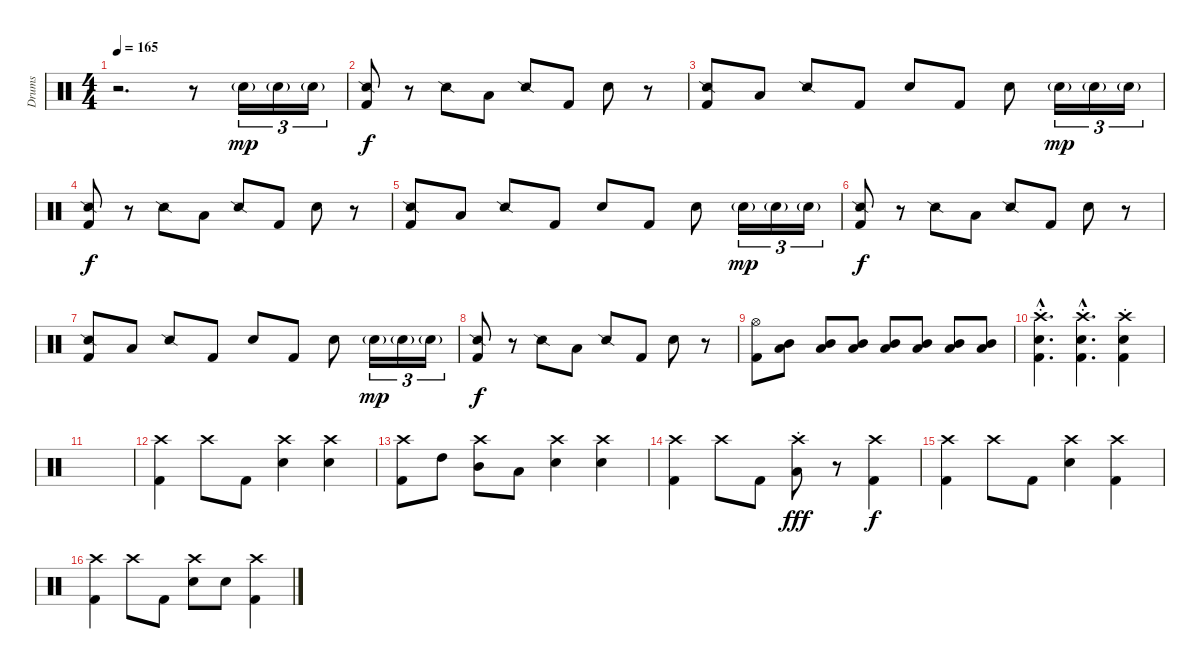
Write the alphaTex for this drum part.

\track ("Drums" "Drums") {instrument percussion}
\staff {score}
\articulation defaults
\ts (4 4)
\tempo 165
\clef neutral
\ks c
r.2{d dy f} r.8 "Electric Snare (hit)"{g}.16{tu (3 2) dy mp} "Electric Snare (hit)"{g}.16{tu (3 2)} "Electric Snare (hit)"{g}.16{tu (3 2)} |
("Snare (side stick) 2" "Kick (hit) 2").8{dy f} r.8 "Snare (side stick) 2".8 "Low Tom (hit)".8 "Snare (side stick) 2".8 "Kick (hit) 2".8 "Electric Snare (hit)".8 r.8 |
("Snare (side stick) 2" "Kick (hit) 2").8 "Low Tom (hit)".8 "Snare (side stick) 2".8 "Kick (hit) 2".8 "Electric Snare (hit)".8 "Kick (hit) 2".8 "Electric Snare (hit)".8 "Electric Snare (hit)"{g}.16{tu (3 2) dy mp} "Electric Snare (hit)"{g}.16{tu (3 2)} "Electric Snare (hit)"{g}.16{tu (3 2)} |
("Snare (side stick) 2" "Kick (hit) 2").8{dy f} r.8 "Snare (side stick) 2".8 "Low Tom (hit)".8 "Snare (side stick) 2".8 "Kick (hit) 2".8 "Electric Snare (hit)".8 r.8 |
("Snare (side stick) 2" "Kick (hit) 2").8 "Low Tom (hit)".8 "Snare (side stick) 2".8 "Kick (hit) 2".8 "Electric Snare (hit)".8 "Kick (hit) 2".8 "Electric Snare (hit)".8 "Electric Snare (hit)"{g}.16{tu (3 2) dy mp} "Electric Snare (hit)"{g}.16{tu (3 2)} "Electric Snare (hit)"{g}.16{tu (3 2)} |
("Snare (side stick) 2" "Kick (hit) 2").8{dy f} r.8 "Snare (side stick) 2".8 "Low Tom (hit)".8 "Snare (side stick) 2".8 "Kick (hit) 2".8 "Electric Snare (hit)".8 r.8 |
("Snare (side stick) 2" "Kick (hit) 2").8 "Low Tom (hit)".8 "Snare (side stick) 2".8 "Kick (hit) 2".8 "Electric Snare (hit)".8 "Kick (hit) 2".8 "Electric Snare (hit)".8 "Electric Snare (hit)"{g}.16{tu (3 2) dy mp} "Electric Snare (hit)"{g}.16{tu (3 2)} "Electric Snare (hit)"{g}.16{tu (3 2)} |
("Snare (side stick) 2" "Kick (hit) 2").8{dy f} r.8 "Snare (side stick) 2".8 "Low Tom (hit)".8 "Snare (side stick) 2".8 "Kick (hit) 2".8 "Electric Snare (hit)".8 r.8 |
("Hi-Hat (open)" "Kick (hit) 2").8 ("Mid Tom (hit)" "Low Tom (hit)").8 ("Mid Tom (hit)" "Low Tom (hit)").8 ("Mid Tom (hit)" "Low Tom (hit)").8 ("Mid Tom (hit)" "Low Tom (hit)").8 ("Mid Tom (hit)" "Low Tom (hit)").8 ("Mid Tom (hit)" "Low Tom (hit)").8 ("Mid Tom (hit)" "Low Tom (hit)").8 |
("Crash high (hit)"{hac st} "Electric Snare (hit)"{hac} "Kick (hit) 2"{hac}).4{d} ("Crash high (hit)"{hac st} "Electric Snare (hit)"{hac} "Kick (hit) 2"{hac}).4{d} ("Crash high (hit)"{st} "Electric Snare (hit)" "Kick (hit) 2").4 |
|
("Crash high (hit)" "Kick (hit) 2").4 "Crash high (hit)".8 "Kick (hit) 2".8 ("Crash high (hit)" "Electric Snare (hit)").4 ("Crash high (hit)" "Electric Snare (hit)").4 |
("Crash high (hit)" "Kick (hit) 2").8 "High Tom (hit)".8 ("Crash high (hit)" "Mid Tom (hit)").8 "Low Tom (hit)".8 ("Crash high (hit)" "Electric Snare (hit)").4 ("Crash high (hit)" "Electric Snare (hit)").4 |
("Crash high (hit)" "Kick (hit) 2").4 "Crash high (hit)".8 "Kick (hit) 2".8 ("Crash high (hit)"{st} "Low Tom (hit)").8{dy fff} r.8 ("Crash high (hit)" "Kick (hit) 2").4{dy f} |
("Crash high (hit)" "Kick (hit) 2").4 "Crash high (hit)".8 "Kick (hit) 2".8 ("Crash high (hit)" "Electric Snare (hit)").4 ("Crash high (hit)" "Kick (hit) 2").4 |
("Crash high (hit)" "Kick (hit) 2").4 "Crash high (hit)".8 "Kick (hit) 2".8 ("Crash high (hit)" "Electric Snare (hit)").8 "Electric Snare (hit)".8 ("Crash high (hit)" "Kick (hit) 2").4
